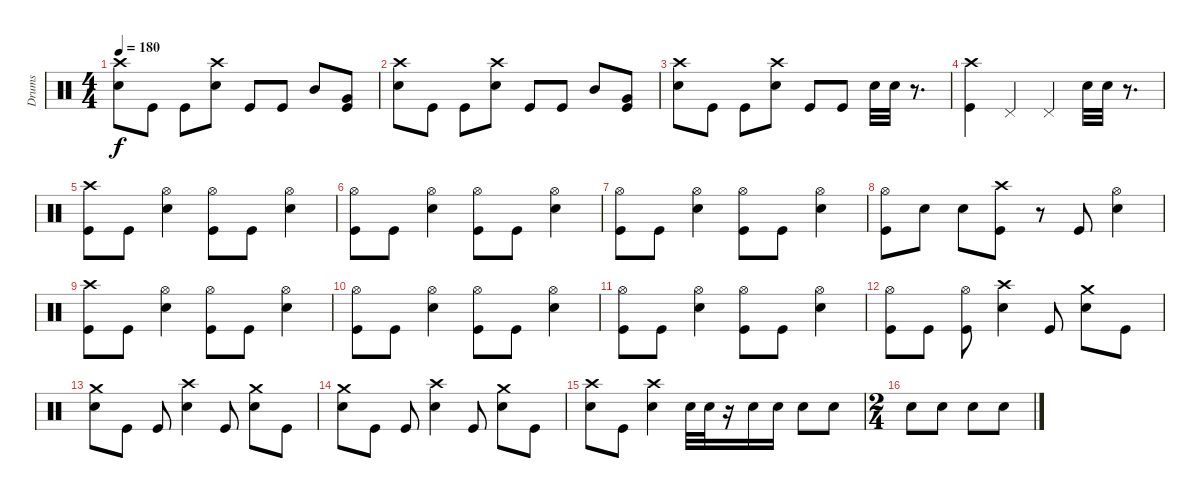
\track ("Drums" "Drums") {instrument percussion}
\staff {score}
\articulation defaults
\ts (4 4)
\tempo 180
\clef neutral
\ks c
("Crash high (hit)" "Snare (hit) 2").8{dy f} "Kick (hit)".8 "Kick (hit)".8 ("Crash high (hit)" "Snare (hit) 2").8 "Kick (hit)".8 "Kick (hit)".8 "Mid Tom (hit)".8 ("Kick (hit)" "Very Low Tom (hit)").8 |
("Crash high (hit)" "Snare (hit) 2").8 "Kick (hit)".8 "Kick (hit)".8 ("Crash high (hit)" "Snare (hit) 2").8 "Kick (hit)".8 "Kick (hit)".8 "Mid Tom (hit)".8 ("Kick (hit)" "Very Low Tom (hit)").8 |
("Crash high (hit)" "Snare (hit) 2").8 "Kick (hit)".8 "Kick (hit)".8 ("Crash high (hit)" "Snare (hit) 2").8 "Kick (hit)".8 "Kick (hit)".8 "Snare (hit) 2".32 "Snare (hit) 2".32 r.8{d} |
("Crash high (hit)" "Kick (hit)").4 "Pedal Hi-Hat (hit)".4 "Pedal Hi-Hat (hit)".4 "Snare (hit) 2".32 "Snare (hit) 2".32 r.8{d} |
("Crash high (hit)" "Kick (hit)").8 "Kick (hit)".8 ("Hi-Hat (open)" "Snare (hit) 2").4 ("Hi-Hat (open)" "Kick (hit)").8 "Kick (hit)".8 ("Hi-Hat (open)" "Snare (hit) 2").4 |
("Hi-Hat (open)" "Kick (hit)").8 "Kick (hit)".8 ("Hi-Hat (open)" "Snare (hit) 2").4 ("Hi-Hat (open)" "Kick (hit)").8 "Kick (hit)".8 ("Hi-Hat (open)" "Snare (hit) 2").4 |
("Hi-Hat (open)" "Kick (hit)").8 "Kick (hit)".8 ("Hi-Hat (open)" "Snare (hit) 2").4 ("Hi-Hat (open)" "Kick (hit)").8 "Kick (hit)".8 ("Hi-Hat (open)" "Snare (hit) 2").4 |
("Hi-Hat (open)" "Kick (hit)").8 "Snare (hit) 2".8 "Snare (hit) 2".8 ("Crash high (hit)" "Kick (hit)").8 r.8 "Kick (hit)".8 ("Hi-Hat (open)" "Snare (hit) 2").4 |
("Crash high (hit)" "Kick (hit)").8 "Kick (hit)".8 ("Hi-Hat (open)" "Snare (hit) 2").4 ("Hi-Hat (open)" "Kick (hit)").8 "Kick (hit)".8 ("Hi-Hat (open)" "Snare (hit) 2").4 |
("Hi-Hat (open)" "Kick (hit)").8 "Kick (hit)".8 ("Hi-Hat (open)" "Snare (hit) 2").4 ("Hi-Hat (open)" "Kick (hit)").8 "Kick (hit)".8 ("Hi-Hat (open)" "Snare (hit) 2").4 |
("Hi-Hat (open)" "Kick (hit)").8 "Kick (hit)".8 ("Hi-Hat (open)" "Snare (hit) 2").4 ("Hi-Hat (open)" "Kick (hit)").8 "Kick (hit)".8 ("Hi-Hat (open)" "Snare (hit) 2").4 |
("Hi-Hat (open)" "Kick (hit)").8 "Kick (hit)".8 ("Hi-Hat (open)" "Kick (hit)").8 ("Crash high (hit)" "Snare (hit) 2").4 "Kick (hit)".8 ("Crash medium (hit)" "Snare (hit) 2").8 "Kick (hit)".8 |
("Crash medium (hit)" "Snare (hit) 2").8 "Kick (hit)".8 "Kick (hit)".8 ("Crash high (hit)" "Snare (hit) 2").4 "Kick (hit)".8 ("Crash medium (hit)" "Snare (hit) 2").8 "Kick (hit)".8 |
("Crash medium (hit)" "Snare (hit) 2").8 "Kick (hit)".8 "Kick (hit)".8 ("Crash high (hit)" "Snare (hit) 2").4 "Kick (hit)".8 ("Crash medium (hit)" "Snare (hit) 2").8 "Kick (hit)".8 |
("Crash high (hit)" "Snare (hit) 2").8 "Kick (hit)".8 ("Crash high (hit)" "Snare (hit) 2").4 "Snare (hit) 2".32 "Snare (hit) 2".32 r.16 "Snare (hit) 2".16 "Snare (hit) 2".16 "Snare (hit) 2".8 "Snare (hit) 2".8 |
\ts (2 4)
"Snare (hit) 2".8 "Snare (hit) 2".8 "Snare (hit) 2".8 "Snare (hit) 2".8
